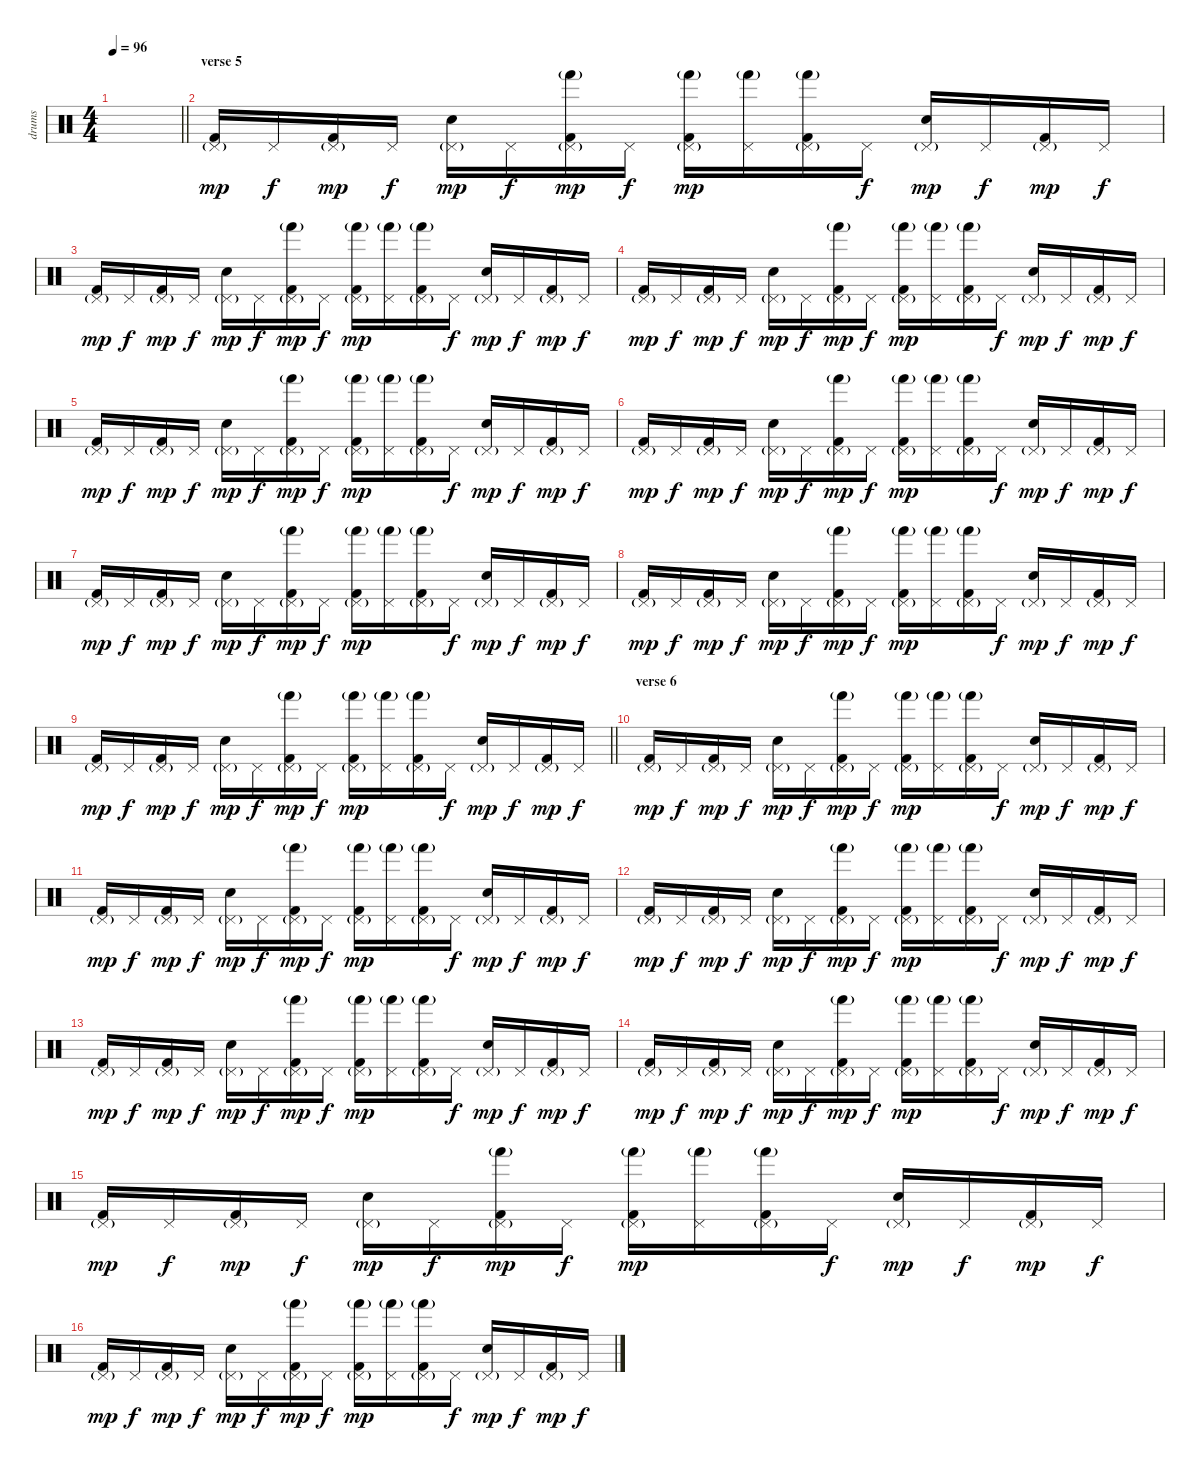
\track ("drums" "drums") {instrument percussion}
\staff {score}
\articulation defaults
\ts (4 4)
\tempo 96
\clef neutral
\barLineRight lightlight
\ks c
|
\section ("" "verse 5")
("Kick (hit) 2" "Pedal Hi-Hat (hit)"{g}).16{dy mp} "Pedal Hi-Hat (hit)".16{dy f} ("Kick (hit) 2" "Pedal Hi-Hat (hit)"{g}).16{dy mp} "Pedal Hi-Hat (hit)".16{dy f} ("Snare (hit) 2" "Pedal Hi-Hat (hit)"{g}).16{dy mp} "Pedal Hi-Hat (hit)".16{dy f} ("Kick (hit) 2" "Hand (hit)"{g} "Pedal Hi-Hat (hit)"{g}).16{dy mp} "Pedal Hi-Hat (hit)".16{dy f} ("Kick (hit) 2" "Hand (hit)"{g} "Pedal Hi-Hat (hit)"{g}).16{dy mp} ("Hand (hit)"{g} "Pedal Hi-Hat (hit)").16 ("Kick (hit) 2" "Hand (hit)"{g} "Pedal Hi-Hat (hit)"{g}).16 "Pedal Hi-Hat (hit)".16{dy f} ("Snare (hit) 2" "Pedal Hi-Hat (hit)"{g}).16{dy mp} "Pedal Hi-Hat (hit)".16{dy f} ("Kick (hit) 2" "Pedal Hi-Hat (hit)"{g}).16{dy mp} "Pedal Hi-Hat (hit)".16{dy f} |
("Kick (hit) 2" "Pedal Hi-Hat (hit)"{g}).16{dy mp} "Pedal Hi-Hat (hit)".16{dy f} ("Kick (hit) 2" "Pedal Hi-Hat (hit)"{g}).16{dy mp} "Pedal Hi-Hat (hit)".16{dy f} ("Snare (hit) 2" "Pedal Hi-Hat (hit)"{g}).16{dy mp} "Pedal Hi-Hat (hit)".16{dy f} ("Kick (hit) 2" "Hand (hit)"{g} "Pedal Hi-Hat (hit)"{g}).16{dy mp} "Pedal Hi-Hat (hit)".16{dy f} ("Kick (hit) 2" "Hand (hit)"{g} "Pedal Hi-Hat (hit)"{g}).16{dy mp} ("Hand (hit)"{g} "Pedal Hi-Hat (hit)").16 ("Kick (hit) 2" "Hand (hit)"{g} "Pedal Hi-Hat (hit)"{g}).16 "Pedal Hi-Hat (hit)".16{dy f} ("Snare (hit) 2" "Pedal Hi-Hat (hit)"{g}).16{dy mp} "Pedal Hi-Hat (hit)".16{dy f} ("Kick (hit) 2" "Pedal Hi-Hat (hit)"{g}).16{dy mp} "Pedal Hi-Hat (hit)".16{dy f} |
("Kick (hit) 2" "Pedal Hi-Hat (hit)"{g}).16{dy mp} "Pedal Hi-Hat (hit)".16{dy f} ("Kick (hit) 2" "Pedal Hi-Hat (hit)"{g}).16{dy mp} "Pedal Hi-Hat (hit)".16{dy f} ("Snare (hit) 2" "Pedal Hi-Hat (hit)"{g}).16{dy mp} "Pedal Hi-Hat (hit)".16{dy f} ("Kick (hit) 2" "Hand (hit)"{g} "Pedal Hi-Hat (hit)"{g}).16{dy mp} "Pedal Hi-Hat (hit)".16{dy f} ("Kick (hit) 2" "Hand (hit)"{g} "Pedal Hi-Hat (hit)"{g}).16{dy mp} ("Hand (hit)"{g} "Pedal Hi-Hat (hit)").16 ("Kick (hit) 2" "Hand (hit)"{g} "Pedal Hi-Hat (hit)"{g}).16 "Pedal Hi-Hat (hit)".16{dy f} ("Snare (hit) 2" "Pedal Hi-Hat (hit)"{g}).16{dy mp} "Pedal Hi-Hat (hit)".16{dy f} ("Kick (hit) 2" "Pedal Hi-Hat (hit)"{g}).16{dy mp} "Pedal Hi-Hat (hit)".16{dy f} |
("Kick (hit) 2" "Pedal Hi-Hat (hit)"{g}).16{dy mp} "Pedal Hi-Hat (hit)".16{dy f} ("Kick (hit) 2" "Pedal Hi-Hat (hit)"{g}).16{dy mp} "Pedal Hi-Hat (hit)".16{dy f} ("Snare (hit) 2" "Pedal Hi-Hat (hit)"{g}).16{dy mp} "Pedal Hi-Hat (hit)".16{dy f} ("Kick (hit) 2" "Hand (hit)"{g} "Pedal Hi-Hat (hit)"{g}).16{dy mp} "Pedal Hi-Hat (hit)".16{dy f} ("Kick (hit) 2" "Hand (hit)"{g} "Pedal Hi-Hat (hit)"{g}).16{dy mp} ("Hand (hit)"{g} "Pedal Hi-Hat (hit)").16 ("Kick (hit) 2" "Hand (hit)"{g} "Pedal Hi-Hat (hit)"{g}).16 "Pedal Hi-Hat (hit)".16{dy f} ("Snare (hit) 2" "Pedal Hi-Hat (hit)"{g}).16{dy mp} "Pedal Hi-Hat (hit)".16{dy f} ("Kick (hit) 2" "Pedal Hi-Hat (hit)"{g}).16{dy mp} "Pedal Hi-Hat (hit)".16{dy f} |
("Kick (hit) 2" "Pedal Hi-Hat (hit)"{g}).16{dy mp} "Pedal Hi-Hat (hit)".16{dy f} ("Kick (hit) 2" "Pedal Hi-Hat (hit)"{g}).16{dy mp} "Pedal Hi-Hat (hit)".16{dy f} ("Snare (hit) 2" "Pedal Hi-Hat (hit)"{g}).16{dy mp} "Pedal Hi-Hat (hit)".16{dy f} ("Kick (hit) 2" "Hand (hit)"{g} "Pedal Hi-Hat (hit)"{g}).16{dy mp} "Pedal Hi-Hat (hit)".16{dy f} ("Kick (hit) 2" "Hand (hit)"{g} "Pedal Hi-Hat (hit)"{g}).16{dy mp} ("Hand (hit)"{g} "Pedal Hi-Hat (hit)").16 ("Kick (hit) 2" "Hand (hit)"{g} "Pedal Hi-Hat (hit)"{g}).16 "Pedal Hi-Hat (hit)".16{dy f} ("Snare (hit) 2" "Pedal Hi-Hat (hit)"{g}).16{dy mp} "Pedal Hi-Hat (hit)".16{dy f} ("Kick (hit) 2" "Pedal Hi-Hat (hit)"{g}).16{dy mp} "Pedal Hi-Hat (hit)".16{dy f} |
("Kick (hit) 2" "Pedal Hi-Hat (hit)"{g}).16{dy mp} "Pedal Hi-Hat (hit)".16{dy f} ("Kick (hit) 2" "Pedal Hi-Hat (hit)"{g}).16{dy mp} "Pedal Hi-Hat (hit)".16{dy f} ("Snare (hit) 2" "Pedal Hi-Hat (hit)"{g}).16{dy mp} "Pedal Hi-Hat (hit)".16{dy f} ("Kick (hit) 2" "Hand (hit)"{g} "Pedal Hi-Hat (hit)"{g}).16{dy mp} "Pedal Hi-Hat (hit)".16{dy f} ("Kick (hit) 2" "Hand (hit)"{g} "Pedal Hi-Hat (hit)"{g}).16{dy mp} ("Hand (hit)"{g} "Pedal Hi-Hat (hit)").16 ("Kick (hit) 2" "Hand (hit)"{g} "Pedal Hi-Hat (hit)"{g}).16 "Pedal Hi-Hat (hit)".16{dy f} ("Snare (hit) 2" "Pedal Hi-Hat (hit)"{g}).16{dy mp} "Pedal Hi-Hat (hit)".16{dy f} ("Kick (hit) 2" "Pedal Hi-Hat (hit)"{g}).16{dy mp} "Pedal Hi-Hat (hit)".16{dy f} |
("Kick (hit) 2" "Pedal Hi-Hat (hit)"{g}).16{dy mp} "Pedal Hi-Hat (hit)".16{dy f} ("Kick (hit) 2" "Pedal Hi-Hat (hit)"{g}).16{dy mp} "Pedal Hi-Hat (hit)".16{dy f} ("Snare (hit) 2" "Pedal Hi-Hat (hit)"{g}).16{dy mp} "Pedal Hi-Hat (hit)".16{dy f} ("Kick (hit) 2" "Hand (hit)"{g} "Pedal Hi-Hat (hit)"{g}).16{dy mp} "Pedal Hi-Hat (hit)".16{dy f} ("Kick (hit) 2" "Hand (hit)"{g} "Pedal Hi-Hat (hit)"{g}).16{dy mp} ("Hand (hit)"{g} "Pedal Hi-Hat (hit)").16 ("Kick (hit) 2" "Hand (hit)"{g} "Pedal Hi-Hat (hit)"{g}).16 "Pedal Hi-Hat (hit)".16{dy f} ("Snare (hit) 2" "Pedal Hi-Hat (hit)"{g}).16{dy mp} "Pedal Hi-Hat (hit)".16{dy f} ("Kick (hit) 2" "Pedal Hi-Hat (hit)"{g}).16{dy mp} "Pedal Hi-Hat (hit)".16{dy f} |
\barLineRight lightlight
("Kick (hit) 2" "Pedal Hi-Hat (hit)"{g}).16{dy mp} "Pedal Hi-Hat (hit)".16{dy f} ("Kick (hit) 2" "Pedal Hi-Hat (hit)"{g}).16{dy mp} "Pedal Hi-Hat (hit)".16{dy f} ("Snare (hit) 2" "Pedal Hi-Hat (hit)"{g}).16{dy mp} "Pedal Hi-Hat (hit)".16{dy f} ("Kick (hit) 2" "Hand (hit)"{g} "Pedal Hi-Hat (hit)"{g}).16{dy mp} "Pedal Hi-Hat (hit)".16{dy f} ("Kick (hit) 2" "Hand (hit)"{g} "Pedal Hi-Hat (hit)"{g}).16{dy mp} ("Hand (hit)"{g} "Pedal Hi-Hat (hit)").16 ("Kick (hit) 2" "Hand (hit)"{g} "Pedal Hi-Hat (hit)"{g}).16 "Pedal Hi-Hat (hit)".16{dy f} ("Snare (hit) 2" "Pedal Hi-Hat (hit)"{g}).16{dy mp} "Pedal Hi-Hat (hit)".16{dy f} ("Kick (hit) 2" "Pedal Hi-Hat (hit)"{g}).16{dy mp} "Pedal Hi-Hat (hit)".16{dy f} |
\section ("" "verse 6")
("Kick (hit) 2" "Pedal Hi-Hat (hit)"{g}).16{dy mp} "Pedal Hi-Hat (hit)".16{dy f} ("Kick (hit) 2" "Pedal Hi-Hat (hit)"{g}).16{dy mp} "Pedal Hi-Hat (hit)".16{dy f} ("Snare (hit) 2" "Pedal Hi-Hat (hit)"{g}).16{dy mp} "Pedal Hi-Hat (hit)".16{dy f} ("Kick (hit) 2" "Hand (hit)"{g} "Pedal Hi-Hat (hit)"{g}).16{dy mp} "Pedal Hi-Hat (hit)".16{dy f} ("Kick (hit) 2" "Hand (hit)"{g} "Pedal Hi-Hat (hit)"{g}).16{dy mp} ("Hand (hit)"{g} "Pedal Hi-Hat (hit)").16 ("Kick (hit) 2" "Hand (hit)"{g} "Pedal Hi-Hat (hit)"{g}).16 "Pedal Hi-Hat (hit)".16{dy f} ("Snare (hit) 2" "Pedal Hi-Hat (hit)"{g}).16{dy mp} "Pedal Hi-Hat (hit)".16{dy f} ("Kick (hit) 2" "Pedal Hi-Hat (hit)"{g}).16{dy mp} "Pedal Hi-Hat (hit)".16{dy f} |
("Kick (hit) 2" "Pedal Hi-Hat (hit)"{g}).16{dy mp} "Pedal Hi-Hat (hit)".16{dy f} ("Kick (hit) 2" "Pedal Hi-Hat (hit)"{g}).16{dy mp} "Pedal Hi-Hat (hit)".16{dy f} ("Snare (hit) 2" "Pedal Hi-Hat (hit)"{g}).16{dy mp} "Pedal Hi-Hat (hit)".16{dy f} ("Kick (hit) 2" "Hand (hit)"{g} "Pedal Hi-Hat (hit)"{g}).16{dy mp} "Pedal Hi-Hat (hit)".16{dy f} ("Kick (hit) 2" "Hand (hit)"{g} "Pedal Hi-Hat (hit)"{g}).16{dy mp} ("Hand (hit)"{g} "Pedal Hi-Hat (hit)").16 ("Kick (hit) 2" "Hand (hit)"{g} "Pedal Hi-Hat (hit)"{g}).16 "Pedal Hi-Hat (hit)".16{dy f} ("Snare (hit) 2" "Pedal Hi-Hat (hit)"{g}).16{dy mp} "Pedal Hi-Hat (hit)".16{dy f} ("Kick (hit) 2" "Pedal Hi-Hat (hit)"{g}).16{dy mp} "Pedal Hi-Hat (hit)".16{dy f} |
("Kick (hit) 2" "Pedal Hi-Hat (hit)"{g}).16{dy mp} "Pedal Hi-Hat (hit)".16{dy f} ("Kick (hit) 2" "Pedal Hi-Hat (hit)"{g}).16{dy mp} "Pedal Hi-Hat (hit)".16{dy f} ("Snare (hit) 2" "Pedal Hi-Hat (hit)"{g}).16{dy mp} "Pedal Hi-Hat (hit)".16{dy f} ("Kick (hit) 2" "Hand (hit)"{g} "Pedal Hi-Hat (hit)"{g}).16{dy mp} "Pedal Hi-Hat (hit)".16{dy f} ("Kick (hit) 2" "Hand (hit)"{g} "Pedal Hi-Hat (hit)"{g}).16{dy mp} ("Hand (hit)"{g} "Pedal Hi-Hat (hit)").16 ("Kick (hit) 2" "Hand (hit)"{g} "Pedal Hi-Hat (hit)"{g}).16 "Pedal Hi-Hat (hit)".16{dy f} ("Snare (hit) 2" "Pedal Hi-Hat (hit)"{g}).16{dy mp} "Pedal Hi-Hat (hit)".16{dy f} ("Kick (hit) 2" "Pedal Hi-Hat (hit)"{g}).16{dy mp} "Pedal Hi-Hat (hit)".16{dy f} |
("Kick (hit) 2" "Pedal Hi-Hat (hit)"{g}).16{dy mp} "Pedal Hi-Hat (hit)".16{dy f} ("Kick (hit) 2" "Pedal Hi-Hat (hit)"{g}).16{dy mp} "Pedal Hi-Hat (hit)".16{dy f} ("Snare (hit) 2" "Pedal Hi-Hat (hit)"{g}).16{dy mp} "Pedal Hi-Hat (hit)".16{dy f} ("Kick (hit) 2" "Hand (hit)"{g} "Pedal Hi-Hat (hit)"{g}).16{dy mp} "Pedal Hi-Hat (hit)".16{dy f} ("Kick (hit) 2" "Hand (hit)"{g} "Pedal Hi-Hat (hit)"{g}).16{dy mp} ("Hand (hit)"{g} "Pedal Hi-Hat (hit)").16 ("Kick (hit) 2" "Hand (hit)"{g} "Pedal Hi-Hat (hit)"{g}).16 "Pedal Hi-Hat (hit)".16{dy f} ("Snare (hit) 2" "Pedal Hi-Hat (hit)"{g}).16{dy mp} "Pedal Hi-Hat (hit)".16{dy f} ("Kick (hit) 2" "Pedal Hi-Hat (hit)"{g}).16{dy mp} "Pedal Hi-Hat (hit)".16{dy f} |
("Kick (hit) 2" "Pedal Hi-Hat (hit)"{g}).16{dy mp} "Pedal Hi-Hat (hit)".16{dy f} ("Kick (hit) 2" "Pedal Hi-Hat (hit)"{g}).16{dy mp} "Pedal Hi-Hat (hit)".16{dy f} ("Snare (hit) 2" "Pedal Hi-Hat (hit)"{g}).16{dy mp} "Pedal Hi-Hat (hit)".16{dy f} ("Kick (hit) 2" "Hand (hit)"{g} "Pedal Hi-Hat (hit)"{g}).16{dy mp} "Pedal Hi-Hat (hit)".16{dy f} ("Kick (hit) 2" "Hand (hit)"{g} "Pedal Hi-Hat (hit)"{g}).16{dy mp} ("Hand (hit)"{g} "Pedal Hi-Hat (hit)").16 ("Kick (hit) 2" "Hand (hit)"{g} "Pedal Hi-Hat (hit)"{g}).16 "Pedal Hi-Hat (hit)".16{dy f} ("Snare (hit) 2" "Pedal Hi-Hat (hit)"{g}).16{dy mp} "Pedal Hi-Hat (hit)".16{dy f} ("Kick (hit) 2" "Pedal Hi-Hat (hit)"{g}).16{dy mp} "Pedal Hi-Hat (hit)".16{dy f} |
("Kick (hit) 2" "Pedal Hi-Hat (hit)"{g}).16{dy mp} "Pedal Hi-Hat (hit)".16{dy f} ("Kick (hit) 2" "Pedal Hi-Hat (hit)"{g}).16{dy mp} "Pedal Hi-Hat (hit)".16{dy f} ("Snare (hit) 2" "Pedal Hi-Hat (hit)"{g}).16{dy mp} "Pedal Hi-Hat (hit)".16{dy f} ("Kick (hit) 2" "Hand (hit)"{g} "Pedal Hi-Hat (hit)"{g}).16{dy mp} "Pedal Hi-Hat (hit)".16{dy f} ("Kick (hit) 2" "Hand (hit)"{g} "Pedal Hi-Hat (hit)"{g}).16{dy mp} ("Hand (hit)"{g} "Pedal Hi-Hat (hit)").16 ("Kick (hit) 2" "Hand (hit)"{g} "Pedal Hi-Hat (hit)"{g}).16 "Pedal Hi-Hat (hit)".16{dy f} ("Snare (hit) 2" "Pedal Hi-Hat (hit)"{g}).16{dy mp} "Pedal Hi-Hat (hit)".16{dy f} ("Kick (hit) 2" "Pedal Hi-Hat (hit)"{g}).16{dy mp} "Pedal Hi-Hat (hit)".16{dy f} |
("Kick (hit) 2" "Pedal Hi-Hat (hit)"{g}).16{dy mp} "Pedal Hi-Hat (hit)".16{dy f} ("Kick (hit) 2" "Pedal Hi-Hat (hit)"{g}).16{dy mp} "Pedal Hi-Hat (hit)".16{dy f} ("Snare (hit) 2" "Pedal Hi-Hat (hit)"{g}).16{dy mp} "Pedal Hi-Hat (hit)".16{dy f} ("Kick (hit) 2" "Hand (hit)"{g} "Pedal Hi-Hat (hit)"{g}).16{dy mp} "Pedal Hi-Hat (hit)".16{dy f} ("Kick (hit) 2" "Hand (hit)"{g} "Pedal Hi-Hat (hit)"{g}).16{dy mp} ("Hand (hit)"{g} "Pedal Hi-Hat (hit)").16 ("Kick (hit) 2" "Hand (hit)"{g} "Pedal Hi-Hat (hit)"{g}).16 "Pedal Hi-Hat (hit)".16{dy f} ("Snare (hit) 2" "Pedal Hi-Hat (hit)"{g}).16{dy mp} "Pedal Hi-Hat (hit)".16{dy f} ("Kick (hit) 2" "Pedal Hi-Hat (hit)"{g}).16{dy mp} "Pedal Hi-Hat (hit)".16{dy f}
